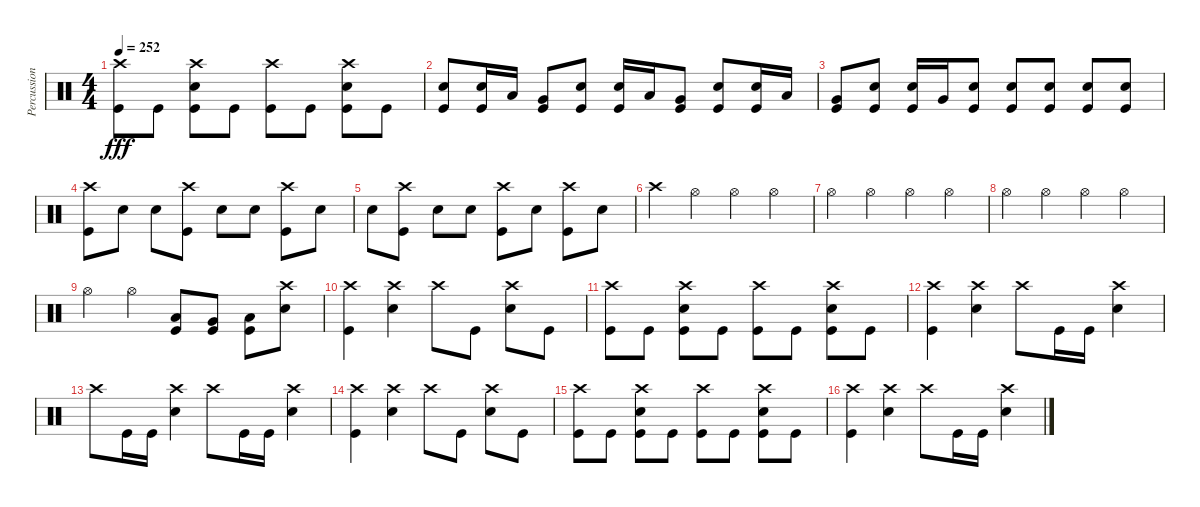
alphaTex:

\track ("Percussion" "Percussion") {instrument percussion}
\staff {score}
\articulation defaults
\ts (4 4)
\tempo 252
\clef neutral
\ks c
("Crash high (hit)" "Kick (hit)").8{dy fff} "Kick (hit)".8 ("Crash high (hit)" "Snare (hit) 2" "Kick (hit)").8 "Kick (hit)".8 ("Crash high (hit)" "Kick (hit)").8 "Kick (hit)".8 ("Crash high (hit)" "Snare (hit) 2" "Kick (hit)").8 "Kick (hit)".8 |
("Snare (hit) 2" "Kick (hit)").8 ("Snare (hit) 2" "Kick (hit)").16 "Low Tom (hit)".16 ("Very Low Tom (hit)" "Kick (hit)").8 ("Snare (hit) 2" "Kick (hit)").8 ("Snare (hit) 2" "Kick (hit)").16 "Low Tom (hit)".16 ("Very Low Tom (hit)" "Kick (hit)").8 ("Snare (hit) 2" "Kick (hit)").8 ("Snare (hit) 2" "Kick (hit)").16 "Low Tom (hit)".16 |
("Very Low Tom (hit)" "Kick (hit)").8 ("Snare (hit) 2" "Kick (hit)").8 ("Snare (hit) 2" "Kick (hit)").16 "Very Low Tom (hit)".16 ("Snare (hit) 2" "Kick (hit)").8 ("Snare (hit) 2" "Kick (hit)").8 ("Snare (hit) 2" "Kick (hit)").8 ("Snare (hit) 2" "Kick (hit)").8 ("Snare (hit) 2" "Kick (hit)").8 |
("Crash high (hit)" "Kick (hit)").8 "Snare (hit) 2".8 "Snare (hit) 2".8 ("Crash high (hit)" "Kick (hit)").8 "Snare (hit) 2".8 "Snare (hit) 2".8 ("Crash high (hit)" "Kick (hit)").8 "Snare (hit) 2".8 |
"Snare (hit) 2".8 ("Crash high (hit)" "Kick (hit)").8 "Snare (hit) 2".8 "Snare (hit) 2".8 ("Crash high (hit)" "Kick (hit)").8 "Snare (hit) 2".8 ("Crash high (hit)" "Kick (hit)").8 "Snare (hit) 2".8 |
"Crash high (hit)".4 "Hi-Hat (open)".4 "Hi-Hat (open)".4 "Hi-Hat (open)".4 |
"Hi-Hat (open)".4 "Hi-Hat (open)".4 "Hi-Hat (open)".4 "Hi-Hat (open)".4 |
"Hi-Hat (open)".4 "Hi-Hat (open)".4 "Hi-Hat (open)".4 "Hi-Hat (open)".4 |
"Hi-Hat (open)".4 "Hi-Hat (open)".4 ("Low Tom (hit)" "Kick (hit)").8 ("Very Low Tom (hit)" "Kick (hit)").8 ("Low Floor Tom (hit)" "Kick (hit)").8 ("Crash high (hit)" "Snare (hit) 2").8 |
("Crash high (hit)" "Kick (hit)").4 ("Crash high (hit)" "Snare (hit) 2").4 "Crash high (hit)".8 "Kick (hit)".8 ("Crash high (hit)" "Snare (hit) 2").8 "Kick (hit)".8 |
("Crash high (hit)" "Kick (hit)").8 "Kick (hit)".8 ("Crash high (hit)" "Snare (hit) 2" "Kick (hit)").8 "Kick (hit)".8 ("Crash high (hit)" "Kick (hit)").8 "Kick (hit)".8 ("Crash high (hit)" "Snare (hit) 2" "Kick (hit)").8 "Kick (hit)".8 |
("Crash high (hit)" "Kick (hit)").4 ("Crash high (hit)" "Snare (hit) 2").4 "Crash high (hit)".8 "Kick (hit)".16 "Kick (hit)".16 ("Crash high (hit)" "Snare (hit) 2").4 |
"Crash high (hit)".8 "Kick (hit)".16 "Kick (hit)".16 ("Crash high (hit)" "Snare (hit) 2").4 "Crash high (hit)".8 "Kick (hit)".16 "Kick (hit)".16 ("Crash high (hit)" "Snare (hit) 2").4 |
("Crash high (hit)" "Kick (hit)").4 ("Crash high (hit)" "Snare (hit) 2").4 "Crash high (hit)".8 "Kick (hit)".8 ("Crash high (hit)" "Snare (hit) 2").8 "Kick (hit)".8 |
("Crash high (hit)" "Kick (hit)").8 "Kick (hit)".8 ("Crash high (hit)" "Snare (hit) 2" "Kick (hit)").8 "Kick (hit)".8 ("Crash high (hit)" "Kick (hit)").8 "Kick (hit)".8 ("Crash high (hit)" "Snare (hit) 2" "Kick (hit)").8 "Kick (hit)".8 |
("Crash high (hit)" "Kick (hit)").4 ("Crash high (hit)" "Snare (hit) 2").4 "Crash high (hit)".8 "Kick (hit)".16 "Kick (hit)".16 ("Crash high (hit)" "Snare (hit) 2").4
